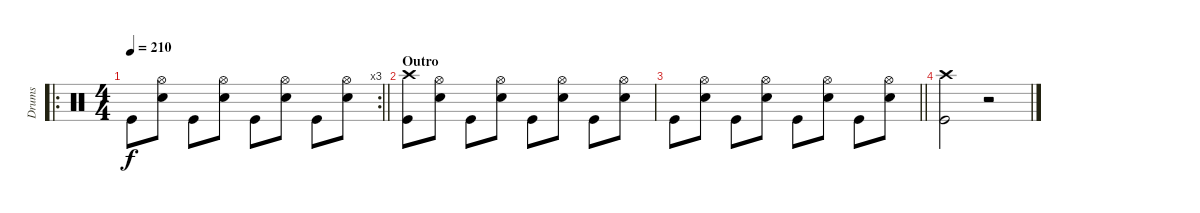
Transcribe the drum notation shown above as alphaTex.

\track ("Drums" "Drums") {instrument percussion}
\staff {score}
\articulation defaults
\ro
\rc 3
\ts (4 4)
\tempo 210
\clef neutral
\barLineRight lightlight
\ks c "Kick (hit)".8{dy f}
("Hi-Hat (open)" "Snare (hit) 2").8 "Kick (hit)".8 ("Hi-Hat (open)" "Snare (hit) 2").8 "Kick (hit)".8 ("Hi-Hat (open)" "Snare (hit) 2").8 "Kick (hit)".8 ("Hi-Hat (open)" "Snare (hit) 2").8 |
\section ("" "Outro")
("Crash high (hit)" "Kick (hit)").8 ("Hi-Hat (open)" "Snare (hit) 2").8 "Kick (hit)".8 ("Hi-Hat (open)" "Snare (hit) 2").8 "Kick (hit)".8 ("Hi-Hat (open)" "Snare (hit) 2").8 "Kick (hit)".8 ("Hi-Hat (open)" "Snare (hit) 2").8 |
\barLineRight lightlight "Kick (hit)".8
("Hi-Hat (open)" "Snare (hit) 2").8 "Kick (hit)".8 ("Hi-Hat (open)" "Snare (hit) 2").8 "Kick (hit)".8 ("Hi-Hat (open)" "Snare (hit) 2").8 "Kick (hit)".8 ("Hi-Hat (open)" "Snare (hit) 2").8 |
("Crash high (hit)" "Kick (hit)").2 r.2
